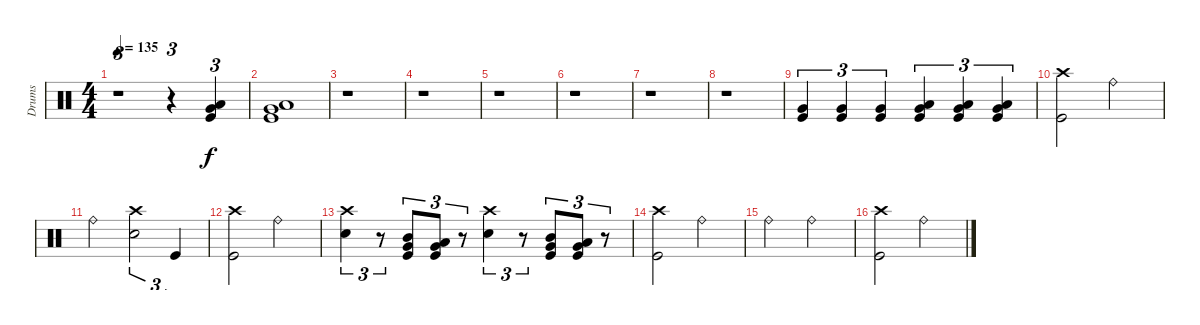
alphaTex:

\track ("Drums" "Drums") {instrument percussion}
\staff {score}
\articulation defaults
\ts (4 4)
\tempo 135
\clef neutral
\ks c
r.1{tu (3 2) dy f} r.4{tu (3 2)} ("Low Tom (hit)" "Very Low Tom (hit)" "Kick (hit)").4{tu (3 2)} |
("Low Tom (hit)" "Very Low Tom (hit)" "Kick (hit)").1 |
r.1 |
r.1 |
r.1 |
r.1 |
r.1 |
r.1 |
("Very Low Tom (hit)" "Kick (hit)").4{tu (3 2)} ("Very Low Tom (hit)" "Kick (hit)").4{tu (3 2)} ("Very Low Tom (hit)" "Kick (hit)").4{tu (3 2)} ("Low Tom (hit)" "Very Low Tom (hit)" "Kick (hit)").4{tu (3 2)} ("Low Tom (hit)" "Very Low Tom (hit)" "Kick (hit)").4{tu (3 2)} ("Low Tom (hit)" "Very Low Tom (hit)" "Kick (hit)").4{tu (3 2)} |
("Crash high (hit)" "Kick (hit)").2 "Ride (bell)".2 |
"Ride (bell)".2 ("Crash high (hit)" "Electric Snare (hit)").2{tu (3 2)} "Kick (hit)".4{tu (3 2)} |
("Crash high (hit)" "Kick (hit)").2 "Ride (bell)".2 |
("Crash high (hit)" "Electric Snare (hit)").4{tu (3 2)} r.8{tu (3 2)} ("Mid Tom (hit)" "Very Low Tom (hit)" "Kick (hit)").8{tu (3 2) balance 6} ("Low Tom (hit)" "Very Low Tom (hit)" "Kick (hit)").8{tu (3 2)} r.8{tu (3 2) balance 8} ("Crash high (hit)" "Electric Snare (hit)").4{tu (3 2)} r.8{tu (3 2)} ("Mid Tom (hit)" "Very Low Tom (hit)" "Kick (hit)").8{tu (3 2) balance 6} ("Low Tom (hit)" "Very Low Tom (hit)" "Kick (hit)").8{tu (3 2)} r.8{tu (3 2) balance 8} |
("Crash high (hit)" "Kick (hit)").2 "Ride (bell)".2 |
"Ride (bell)".2 "Ride (bell)".2 |
("Crash high (hit)" "Kick (hit)").2 "Ride (bell)".2
